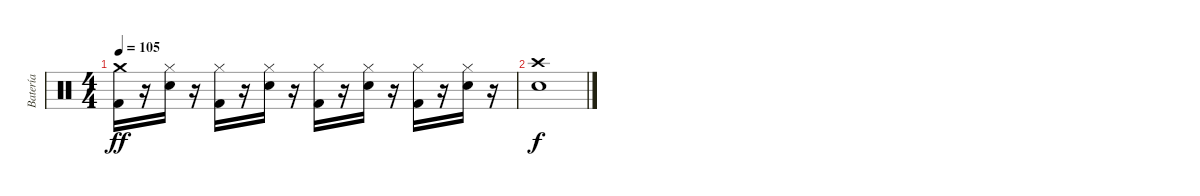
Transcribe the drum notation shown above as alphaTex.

\track ("Batería" "Batería") {instrument percussion}
\staff {score}
\articulation defaults
\ts (4 4)
\tempo 105
\clef neutral
\ks c
("Crash medium (hit)" "Kick (hit) 2").16{dy ff} r.16 ("Hi-Hat (closed)" "Electric Snare (hit)").16 r.16 ("Hi-Hat (closed)" "Kick (hit) 2").16 r.16 ("Hi-Hat (closed)" "Electric Snare (hit)").16 r.16 ("Hi-Hat (closed)" "Kick (hit) 2").16 r.16 ("Hi-Hat (closed)" "Electric Snare (hit)").16 r.16 ("Hi-Hat (closed)" "Kick (hit) 2").16 r.16 ("Hi-Hat (closed)" "Electric Snare (hit)").16 r.16 |
("Crash high (hit)" "Electric Snare (hit)").1{dy f}
